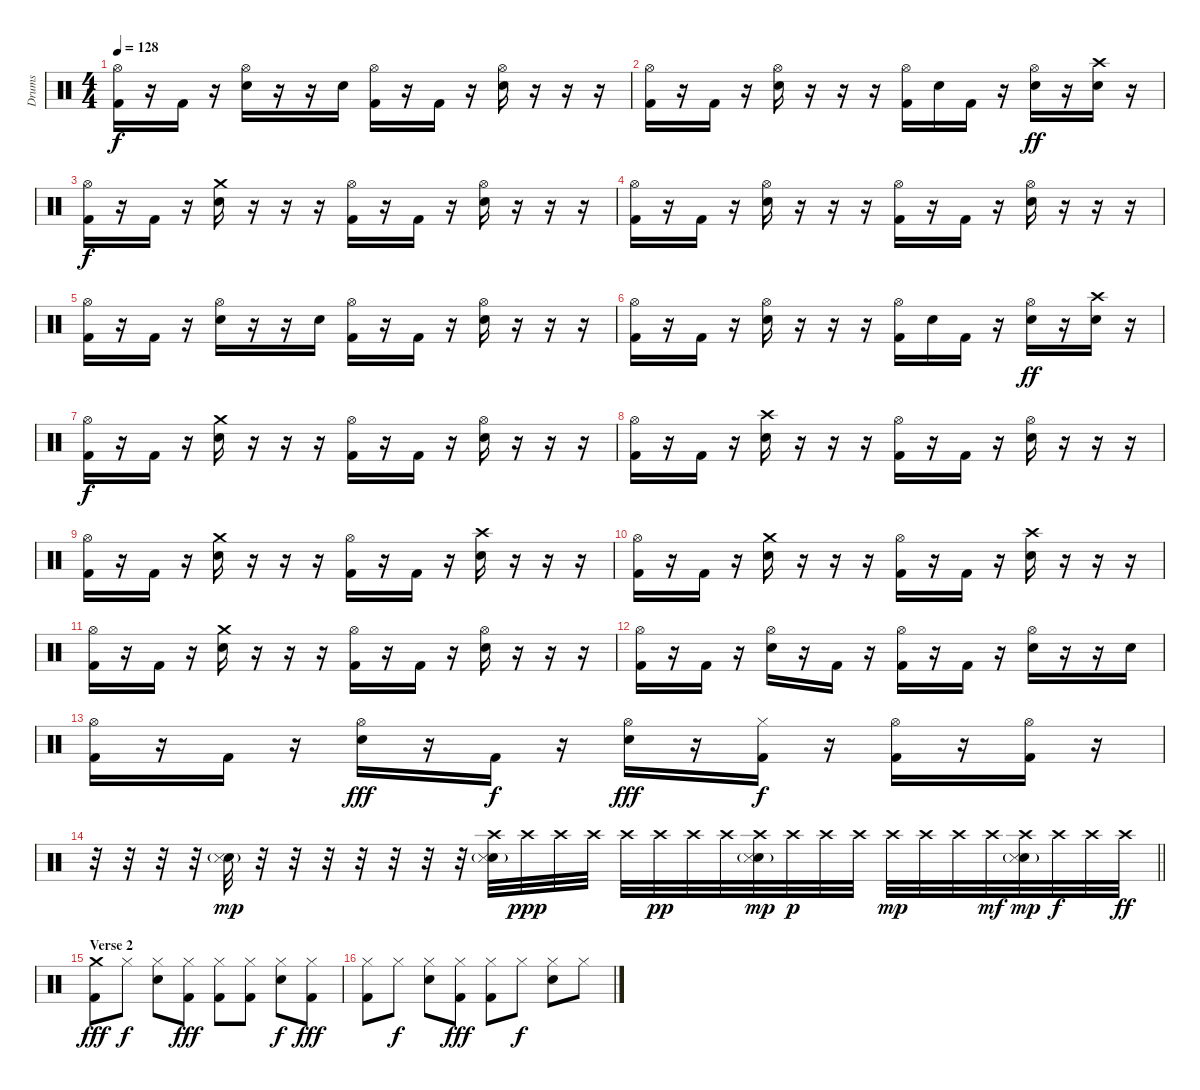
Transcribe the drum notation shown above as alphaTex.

\track ("Drums" "Drums") {instrument percussion}
\staff {score}
\articulation defaults
\ts (4 4)
\tempo 128
\clef neutral
\ks c
("Hi-Hat (open)" "Kick (hit) 2").16{dy f} r.16 "Kick (hit) 2".16 r.16 ("Hi-Hat (open)" "Electric Snare (hit)").16 r.16 r.16 "Electric Snare (hit)".16 ("Hi-Hat (open)" "Kick (hit) 2").16 r.16 "Kick (hit) 2".16 r.16 ("Hi-Hat (open)" "Electric Snare (hit)").16 r.16 r.16 r.16 |
("Hi-Hat (open)" "Kick (hit) 2").16 r.16 "Kick (hit) 2".16 r.16 ("Hi-Hat (open)" "Electric Snare (hit)").16 r.16 r.16 r.16 ("Hi-Hat (open)" "Kick (hit) 2").16 "Electric Snare (hit)".16 "Kick (hit) 2".16 r.16 ("Hi-Hat (open)" "Electric Snare (hit)").16{dy ff} r.16 ("Crash high (hit)" "Electric Snare (hit)").16 r.16 |
("Hi-Hat (open)" "Kick (hit) 2").16{dy f} r.16 "Kick (hit) 2".16 r.16 ("Crash medium (hit)" "Electric Snare (hit)").16 r.16 r.16 r.16 ("Hi-Hat (open)" "Kick (hit) 2").16 r.16 "Kick (hit) 2".16 r.16 ("Hi-Hat (open)" "Electric Snare (hit)").16 r.16 r.16 r.16 |
("Hi-Hat (open)" "Kick (hit) 2").16 r.16 "Kick (hit) 2".16 r.16 ("Hi-Hat (open)" "Electric Snare (hit)").16 r.16 r.16 r.16 ("Hi-Hat (open)" "Kick (hit) 2").16 r.16 "Kick (hit) 2".16 r.16 ("Hi-Hat (open)" "Electric Snare (hit)").16 r.16 r.16 r.16 |
("Hi-Hat (open)" "Kick (hit) 2").16 r.16 "Kick (hit) 2".16 r.16 ("Hi-Hat (open)" "Electric Snare (hit)").16 r.16 r.16 "Electric Snare (hit)".16 ("Hi-Hat (open)" "Kick (hit) 2").16 r.16 "Kick (hit) 2".16 r.16 ("Hi-Hat (open)" "Electric Snare (hit)").16 r.16 r.16 r.16 |
("Hi-Hat (open)" "Kick (hit) 2").16 r.16 "Kick (hit) 2".16 r.16 ("Hi-Hat (open)" "Electric Snare (hit)").16 r.16 r.16 r.16 ("Hi-Hat (open)" "Kick (hit) 2").16 "Electric Snare (hit)".16 "Kick (hit) 2".16 r.16 ("Hi-Hat (open)" "Electric Snare (hit)").16{dy ff} r.16 ("Crash high (hit)" "Electric Snare (hit)").16 r.16 |
("Hi-Hat (open)" "Kick (hit) 2").16{dy f} r.16 "Kick (hit) 2".16 r.16 ("Crash medium (hit)" "Electric Snare (hit)").16 r.16 r.16 r.16 ("Hi-Hat (open)" "Kick (hit) 2").16 r.16 "Kick (hit) 2".16 r.16 ("Hi-Hat (open)" "Electric Snare (hit)").16 r.16 r.16 r.16 |
("Hi-Hat (open)" "Kick (hit) 2").16 r.16 "Kick (hit) 2".16 r.16 ("Crash high (hit)" "Electric Snare (hit)").16 r.16 r.16 r.16 ("Hi-Hat (open)" "Kick (hit) 2").16 r.16 "Kick (hit) 2".16 r.16 ("Hi-Hat (open)" "Electric Snare (hit)").16 r.16 r.16 r.16 |
("Hi-Hat (open)" "Kick (hit) 2").16 r.16 "Kick (hit) 2".16 r.16 ("Crash medium (hit)" "Electric Snare (hit)").16 r.16 r.16 r.16 ("Hi-Hat (open)" "Kick (hit) 2").16 r.16 "Kick (hit) 2".16 r.16 ("Crash high (hit)" "Electric Snare (hit)").16 r.16 r.16 r.16 |
("Hi-Hat (open)" "Kick (hit) 2").16 r.16 "Kick (hit) 2".16 r.16 ("Crash medium (hit)" "Electric Snare (hit)").16 r.16 r.16 r.16 ("Hi-Hat (open)" "Kick (hit) 2").16 r.16 "Kick (hit) 2".16 r.16 ("Crash high (hit)" "Electric Snare (hit)").16 r.16 r.16 r.16 |
("Hi-Hat (open)" "Kick (hit) 2").16 r.16 "Kick (hit) 2".16 r.16 ("Crash medium (hit)" "Electric Snare (hit)").16 r.16 r.16 r.16 ("Hi-Hat (open)" "Kick (hit) 2").16 r.16 "Kick (hit) 2".16 r.16 ("Hi-Hat (open)" "Electric Snare (hit)").16 r.16 r.16 r.16 |
("Hi-Hat (open)" "Kick (hit) 2").16 r.16 "Kick (hit) 2".16 r.16 ("Hi-Hat (open)" "Electric Snare (hit)").16 r.16 "Kick (hit) 2".16 r.16 ("Hi-Hat (open)" "Kick (hit) 2").16 r.16 "Kick (hit) 2".16 r.16 ("Hi-Hat (open)" "Electric Snare (hit)").16 r.16 r.16 "Electric Snare (hit)".16 |
("Hi-Hat (open)" "Kick (hit) 2").16 r.16 "Kick (hit) 2".16 r.16 ("Hi-Hat (open)" "Electric Snare (hit)").16{dy fff} r.16 "Kick (hit) 2".16{dy f} r.16 ("Hi-Hat (open)" "Electric Snare (hit)").16{dy fff} r.16 ("Hi-Hat (closed)" "Kick (hit) 2").16{dy f} r.16 ("Hi-Hat (open)" "Kick (hit) 2").16 r.16 ("Hi-Hat (open)" "Kick (hit) 2").16 r.16 |
\barLineRight lightlight
r.32 r.32 r.32 r.32 ("Electric Snare (hit)"{g} "Snare (side stick) 3").32{dy mp} r.32 r.32 r.32 r.32 r.32 r.32 r.32 ("Crash high (hit)" "Electric Snare (hit)"{g} "Snare (side stick) 3").32 "Crash high (hit)".32{dy ppp} "Crash high (hit)".32 "Crash high (hit)".32 "Crash high (hit)".32 "Crash high (hit)".32{dy pp} "Crash high (hit)".32 "Crash high (hit)".32 ("Crash high (hit)" "Electric Snare (hit)"{g} "Snare (side stick) 3").32{dy mp} "Crash high (hit)".32{dy p} "Crash high (hit)".32 "Crash high (hit)".32 "Crash high (hit)".32{dy mp} "Crash high (hit)".32 "Crash high (hit)".32 "Crash high (hit)".32{dy mf} ("Crash high (hit)" "Electric Snare (hit)"{g} "Snare (side stick) 3").32{dy mp} "Crash high (hit)".32{dy f} "Crash high (hit)".32 "Crash high (hit)".32{dy ff} |
\section ("" "Verse 2")
("Crash medium (hit)" "Kick (hit) 2").8{dy fff} "Hi-Hat (closed)".8{dy f} ("Hi-Hat (closed)" "Electric Snare (hit)").8 ("Hi-Hat (closed)" "Kick (hit) 2").8{dy fff} ("Hi-Hat (closed)" "Kick (hit) 2").8 ("Hi-Hat (closed)" "Kick (hit) 2").8 ("Hi-Hat (closed)" "Electric Snare (hit)").8{dy f} ("Hi-Hat (closed)" "Kick (hit) 2").8{dy fff} |
("Hi-Hat (closed)" "Kick (hit) 2").8 "Hi-Hat (closed)".8{dy f} ("Hi-Hat (closed)" "Electric Snare (hit)").8 ("Hi-Hat (closed)" "Kick (hit) 2").8{dy fff} ("Hi-Hat (closed)" "Kick (hit) 2").8 "Hi-Hat (closed)".8{dy f} ("Hi-Hat (closed)" "Electric Snare (hit)").8 "Hi-Hat (closed)".8
